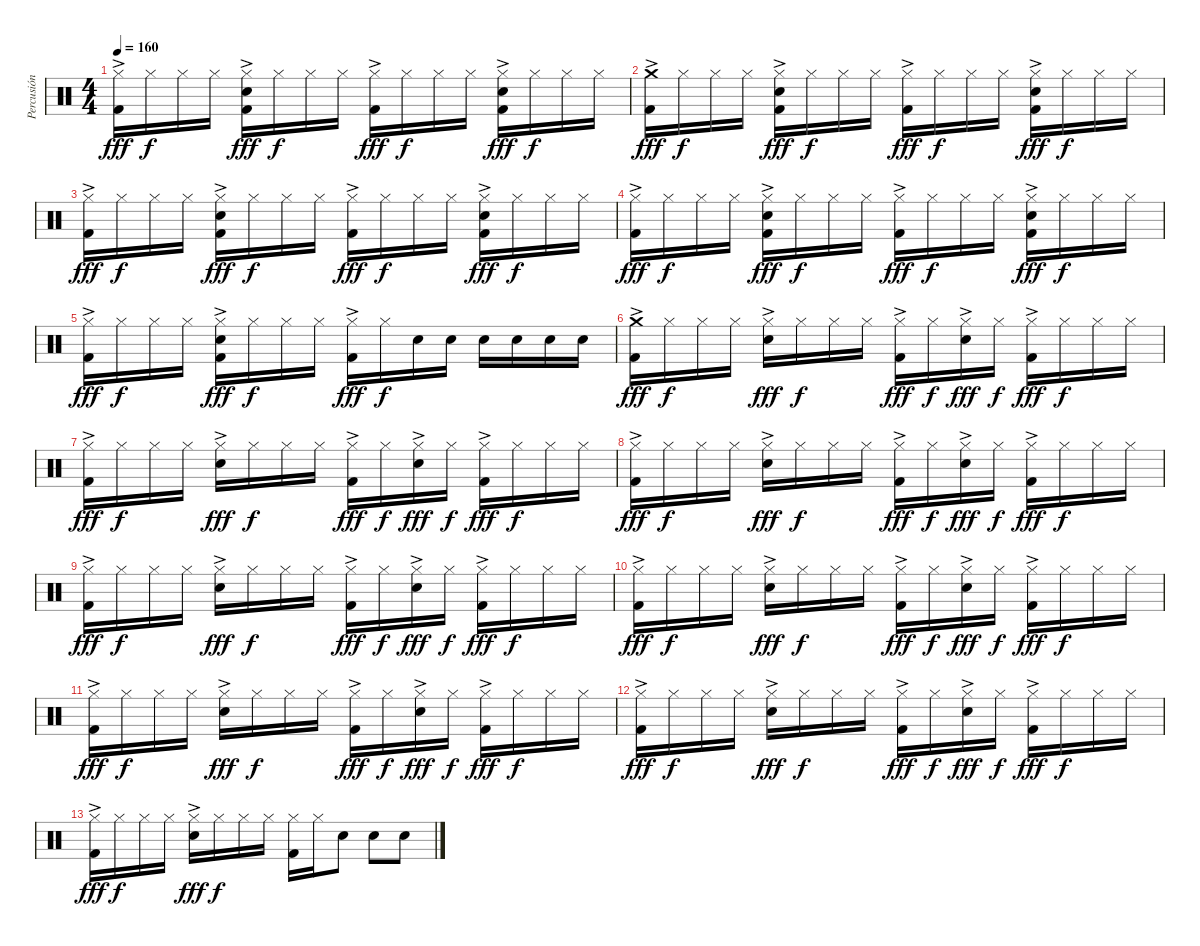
\track ("Percusión" "Percusión") {instrument percussion}
\staff {score}
\articulation defaults
\ts (4 4)
\tempo 160
\clef neutral
\ks c
("Hi-Hat (closed)" "Kick (hit) 2"{ac}).16{dy fff} "Hi-Hat (closed)".16{dy f} "Hi-Hat (closed)".16 "Hi-Hat (closed)".16 ("Hi-Hat (closed)"{ac} "Electric Snare (hit)" "Kick (hit) 2").16{dy fff} "Hi-Hat (closed)".16{dy f} "Hi-Hat (closed)".16 "Hi-Hat (closed)".16 ("Hi-Hat (closed)"{ac} "Kick (hit) 2"{ac}).16{dy fff} "Hi-Hat (closed)".16{dy f} "Hi-Hat (closed)".16 "Hi-Hat (closed)".16 ("Hi-Hat (closed)"{ac} "Electric Snare (hit)" "Kick (hit) 2").16{dy fff} "Hi-Hat (closed)".16{dy f} "Hi-Hat (closed)".16 "Hi-Hat (closed)".16 |
("Crash medium (hit)" "Kick (hit) 2"{ac}).16{dy fff} "Hi-Hat (closed)".16{dy f} "Hi-Hat (closed)".16 "Hi-Hat (closed)".16 ("Hi-Hat (closed)"{ac} "Electric Snare (hit)" "Kick (hit) 2").16{dy fff} "Hi-Hat (closed)".16{dy f} "Hi-Hat (closed)".16 "Hi-Hat (closed)".16 ("Hi-Hat (closed)"{ac} "Kick (hit) 2"{ac}).16{dy fff} "Hi-Hat (closed)".16{dy f} "Hi-Hat (closed)".16 "Hi-Hat (closed)".16 ("Hi-Hat (closed)"{ac} "Electric Snare (hit)" "Kick (hit) 2").16{dy fff} "Hi-Hat (closed)".16{dy f} "Hi-Hat (closed)".16 "Hi-Hat (closed)".16 |
("Hi-Hat (closed)" "Kick (hit) 2"{ac}).16{dy fff} "Hi-Hat (closed)".16{dy f} "Hi-Hat (closed)".16 "Hi-Hat (closed)".16 ("Hi-Hat (closed)"{ac} "Electric Snare (hit)" "Kick (hit) 2").16{dy fff} "Hi-Hat (closed)".16{dy f} "Hi-Hat (closed)".16 "Hi-Hat (closed)".16 ("Hi-Hat (closed)"{ac} "Kick (hit) 2"{ac}).16{dy fff} "Hi-Hat (closed)".16{dy f} "Hi-Hat (closed)".16 "Hi-Hat (closed)".16 ("Hi-Hat (closed)"{ac} "Electric Snare (hit)" "Kick (hit) 2").16{dy fff} "Hi-Hat (closed)".16{dy f} "Hi-Hat (closed)".16 "Hi-Hat (closed)".16 |
("Hi-Hat (closed)" "Kick (hit) 2"{ac}).16{dy fff} "Hi-Hat (closed)".16{dy f} "Hi-Hat (closed)".16 "Hi-Hat (closed)".16 ("Hi-Hat (closed)"{ac} "Electric Snare (hit)" "Kick (hit) 2").16{dy fff} "Hi-Hat (closed)".16{dy f} "Hi-Hat (closed)".16 "Hi-Hat (closed)".16 ("Hi-Hat (closed)"{ac} "Kick (hit) 2"{ac}).16{dy fff} "Hi-Hat (closed)".16{dy f} "Hi-Hat (closed)".16 "Hi-Hat (closed)".16 ("Hi-Hat (closed)"{ac} "Electric Snare (hit)" "Kick (hit) 2").16{dy fff} "Hi-Hat (closed)".16{dy f} "Hi-Hat (closed)".16 "Hi-Hat (closed)".16 |
("Hi-Hat (closed)" "Kick (hit) 2"{ac}).16{dy fff} "Hi-Hat (closed)".16{dy f} "Hi-Hat (closed)".16 "Hi-Hat (closed)".16 ("Hi-Hat (closed)"{ac} "Electric Snare (hit)" "Kick (hit) 2").16{dy fff} "Hi-Hat (closed)".16{dy f} "Hi-Hat (closed)".16 "Hi-Hat (closed)".16 ("Hi-Hat (closed)"{ac} "Kick (hit) 2"{ac}).16{dy fff} "Hi-Hat (closed)".16{dy f} "Electric Snare (hit)".16 "Electric Snare (hit)".16 "Electric Snare (hit)".16 "Electric Snare (hit)".16 "Electric Snare (hit)".16 "Electric Snare (hit)".16 |
("Crash medium (hit)" "Kick (hit) 2"{ac}).16{dy fff} "Hi-Hat (closed)".16{dy f} "Hi-Hat (closed)".16 "Hi-Hat (closed)".16 ("Hi-Hat (closed)"{ac} "Electric Snare (hit)"{ac}).16{dy fff} "Hi-Hat (closed)".16{dy f} "Hi-Hat (closed)".16 "Hi-Hat (closed)".16 ("Hi-Hat (closed)"{ac} "Kick (hit) 2"{ac}).16{dy fff} "Hi-Hat (closed)".16{dy f} ("Hi-Hat (closed)" "Electric Snare (hit)"{ac}).16{dy fff} "Hi-Hat (closed)".16{dy f} ("Hi-Hat (closed)"{ac} "Kick (hit) 2"{ac}).16{dy fff} "Hi-Hat (closed)".16{dy f} "Hi-Hat (closed)".16 "Hi-Hat (closed)".16 |
("Hi-Hat (closed)" "Kick (hit) 2"{ac}).16{dy fff} "Hi-Hat (closed)".16{dy f} "Hi-Hat (closed)".16 "Hi-Hat (closed)".16 ("Hi-Hat (closed)"{ac} "Electric Snare (hit)"{ac}).16{dy fff} "Hi-Hat (closed)".16{dy f} "Hi-Hat (closed)".16 "Hi-Hat (closed)".16 ("Hi-Hat (closed)"{ac} "Kick (hit) 2"{ac}).16{dy fff} "Hi-Hat (closed)".16{dy f} ("Hi-Hat (closed)" "Electric Snare (hit)"{ac}).16{dy fff} "Hi-Hat (closed)".16{dy f} ("Hi-Hat (closed)"{ac} "Kick (hit) 2"{ac}).16{dy fff} "Hi-Hat (closed)".16{dy f} "Hi-Hat (closed)".16 "Hi-Hat (closed)".16 |
("Hi-Hat (closed)" "Kick (hit) 2"{ac}).16{dy fff} "Hi-Hat (closed)".16{dy f} "Hi-Hat (closed)".16 "Hi-Hat (closed)".16 ("Hi-Hat (closed)"{ac} "Electric Snare (hit)"{ac}).16{dy fff} "Hi-Hat (closed)".16{dy f} "Hi-Hat (closed)".16 "Hi-Hat (closed)".16 ("Hi-Hat (closed)"{ac} "Kick (hit) 2"{ac}).16{dy fff} "Hi-Hat (closed)".16{dy f} ("Hi-Hat (closed)" "Electric Snare (hit)"{ac}).16{dy fff} "Hi-Hat (closed)".16{dy f} ("Hi-Hat (closed)"{ac} "Kick (hit) 2"{ac}).16{dy fff} "Hi-Hat (closed)".16{dy f} "Hi-Hat (closed)".16 "Hi-Hat (closed)".16 |
("Hi-Hat (closed)" "Kick (hit) 2"{ac}).16{dy fff} "Hi-Hat (closed)".16{dy f} "Hi-Hat (closed)".16 "Hi-Hat (closed)".16 ("Hi-Hat (closed)"{ac} "Electric Snare (hit)"{ac}).16{dy fff} "Hi-Hat (closed)".16{dy f} "Hi-Hat (closed)".16 "Hi-Hat (closed)".16 ("Hi-Hat (closed)"{ac} "Kick (hit) 2"{ac}).16{dy fff} "Hi-Hat (closed)".16{dy f} ("Hi-Hat (closed)" "Electric Snare (hit)"{ac}).16{dy fff} "Hi-Hat (closed)".16{dy f} ("Hi-Hat (closed)"{ac} "Kick (hit) 2"{ac}).16{dy fff} "Hi-Hat (closed)".16{dy f} "Hi-Hat (closed)".16 "Hi-Hat (closed)".16 |
("Hi-Hat (closed)" "Kick (hit) 2"{ac}).16{dy fff} "Hi-Hat (closed)".16{dy f} "Hi-Hat (closed)".16 "Hi-Hat (closed)".16 ("Hi-Hat (closed)"{ac} "Electric Snare (hit)"{ac}).16{dy fff} "Hi-Hat (closed)".16{dy f} "Hi-Hat (closed)".16 "Hi-Hat (closed)".16 ("Hi-Hat (closed)"{ac} "Kick (hit) 2"{ac}).16{dy fff} "Hi-Hat (closed)".16{dy f} ("Hi-Hat (closed)" "Electric Snare (hit)"{ac}).16{dy fff} "Hi-Hat (closed)".16{dy f} ("Hi-Hat (closed)"{ac} "Kick (hit) 2"{ac}).16{dy fff} "Hi-Hat (closed)".16{dy f} "Hi-Hat (closed)".16 "Hi-Hat (closed)".16 |
("Hi-Hat (closed)" "Kick (hit) 2"{ac}).16{dy fff} "Hi-Hat (closed)".16{dy f} "Hi-Hat (closed)".16 "Hi-Hat (closed)".16 ("Hi-Hat (closed)"{ac} "Electric Snare (hit)"{ac}).16{dy fff} "Hi-Hat (closed)".16{dy f} "Hi-Hat (closed)".16 "Hi-Hat (closed)".16 ("Hi-Hat (closed)"{ac} "Kick (hit) 2"{ac}).16{dy fff} "Hi-Hat (closed)".16{dy f} ("Hi-Hat (closed)" "Electric Snare (hit)"{ac}).16{dy fff} "Hi-Hat (closed)".16{dy f} ("Hi-Hat (closed)"{ac} "Kick (hit) 2"{ac}).16{dy fff} "Hi-Hat (closed)".16{dy f} "Hi-Hat (closed)".16 "Hi-Hat (closed)".16 |
("Hi-Hat (closed)" "Kick (hit) 2"{ac}).16{dy fff} "Hi-Hat (closed)".16{dy f} "Hi-Hat (closed)".16 "Hi-Hat (closed)".16 ("Hi-Hat (closed)"{ac} "Electric Snare (hit)"{ac}).16{dy fff} "Hi-Hat (closed)".16{dy f} "Hi-Hat (closed)".16 "Hi-Hat (closed)".16 ("Hi-Hat (closed)"{ac} "Kick (hit) 2"{ac}).16{dy fff} "Hi-Hat (closed)".16{dy f} ("Hi-Hat (closed)" "Electric Snare (hit)"{ac}).16{dy fff} "Hi-Hat (closed)".16{dy f} ("Hi-Hat (closed)"{ac} "Kick (hit) 2"{ac}).16{dy fff} "Hi-Hat (closed)".16{dy f} "Hi-Hat (closed)".16 "Hi-Hat (closed)".16 |
("Hi-Hat (closed)" "Kick (hit) 2"{ac}).16{dy fff} "Hi-Hat (closed)".16{dy f} "Hi-Hat (closed)".16 "Hi-Hat (closed)".16 ("Hi-Hat (closed)"{ac} "Electric Snare (hit)"{ac}).16{dy fff} "Hi-Hat (closed)".16{dy f} "Hi-Hat (closed)".16 "Hi-Hat (closed)".16 ("Hi-Hat (closed)" "Kick (hit) 2").16 "Hi-Hat (closed)".16 "Electric Snare (hit)".8 "Electric Snare (hit)".8 "Electric Snare (hit)".8
